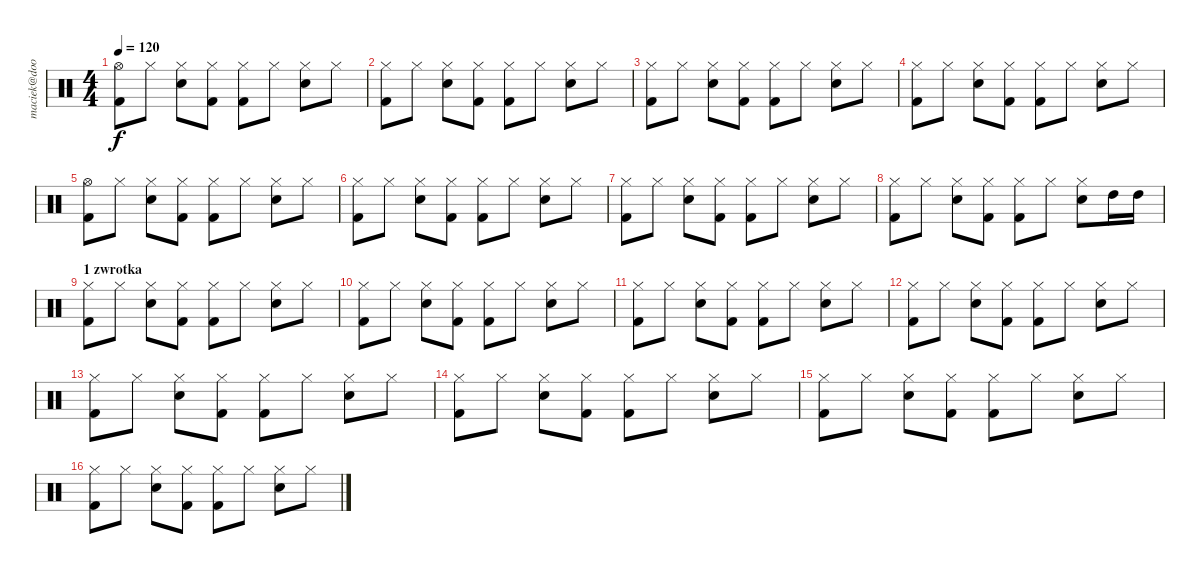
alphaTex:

\track ("maciek@doorpol.com" "maciek@doo") {instrument percussion}
\staff {score}
\articulation defaults
\ts (4 4)
\tempo 120
\clef neutral
\ks c
("Hi-Hat (open)" "Kick (hit) 2").8{dy f} "Hi-Hat (closed)".8 ("Hi-Hat (closed)" "Snare (hit) 2").8 ("Hi-Hat (closed)" "Kick (hit) 2").8 ("Hi-Hat (closed)" "Kick (hit) 2").8 "Hi-Hat (closed)".8 ("Hi-Hat (closed)" "Snare (hit) 2").8 "Hi-Hat (closed)".8 |
("Hi-Hat (closed)" "Kick (hit) 2").8 "Hi-Hat (closed)".8 ("Hi-Hat (closed)" "Snare (hit) 2").8 ("Hi-Hat (closed)" "Kick (hit) 2").8 ("Hi-Hat (closed)" "Kick (hit) 2").8 "Hi-Hat (closed)".8 ("Hi-Hat (closed)" "Snare (hit) 2").8 "Hi-Hat (closed)".8 |
("Hi-Hat (closed)" "Kick (hit) 2").8 "Hi-Hat (closed)".8 ("Hi-Hat (closed)" "Snare (hit) 2").8 ("Hi-Hat (closed)" "Kick (hit) 2").8 ("Hi-Hat (closed)" "Kick (hit) 2").8 "Hi-Hat (closed)".8 ("Hi-Hat (closed)" "Snare (hit) 2").8 "Hi-Hat (closed)".8 |
("Hi-Hat (closed)" "Kick (hit) 2").8 "Hi-Hat (closed)".8 ("Hi-Hat (closed)" "Snare (hit) 2").8 ("Hi-Hat (closed)" "Kick (hit) 2").8 ("Hi-Hat (closed)" "Kick (hit) 2").8 "Hi-Hat (closed)".8 ("Hi-Hat (closed)" "Snare (hit) 2").8 "Hi-Hat (closed)".8 |
("Hi-Hat (open)" "Kick (hit) 2").8 "Hi-Hat (closed)".8 ("Hi-Hat (closed)" "Snare (hit) 2").8 ("Hi-Hat (closed)" "Kick (hit) 2").8 ("Hi-Hat (closed)" "Kick (hit) 2").8 "Hi-Hat (closed)".8 ("Hi-Hat (closed)" "Snare (hit) 2").8 "Hi-Hat (closed)".8 |
("Hi-Hat (closed)" "Kick (hit) 2").8 "Hi-Hat (closed)".8 ("Hi-Hat (closed)" "Snare (hit) 2").8 ("Hi-Hat (closed)" "Kick (hit) 2").8 ("Hi-Hat (closed)" "Kick (hit) 2").8 "Hi-Hat (closed)".8 ("Hi-Hat (closed)" "Snare (hit) 2").8 "Hi-Hat (closed)".8 |
("Hi-Hat (closed)" "Kick (hit) 2").8 "Hi-Hat (closed)".8 ("Hi-Hat (closed)" "Snare (hit) 2").8 ("Hi-Hat (closed)" "Kick (hit) 2").8 ("Hi-Hat (closed)" "Kick (hit) 2").8 "Hi-Hat (closed)".8 ("Hi-Hat (closed)" "Snare (hit) 2").8 "Hi-Hat (closed)".8 |
("Hi-Hat (closed)" "Kick (hit) 2").8 "Hi-Hat (closed)".8 ("Hi-Hat (closed)" "Snare (hit) 2").8 ("Hi-Hat (closed)" "Kick (hit) 2").8 ("Hi-Hat (closed)" "Kick (hit) 2").8 "Hi-Hat (closed)".8 ("Hi-Hat (closed)" "Snare (hit) 2").8 "High Tom (hit)".16 "High Tom (hit)".16 |
\section ("" "1 zwrotka")
("Hi-Hat (closed)" "Kick (hit) 2").8 "Hi-Hat (closed)".8 ("Hi-Hat (closed)" "Snare (hit) 2").8 ("Hi-Hat (closed)" "Kick (hit) 2").8 ("Hi-Hat (closed)" "Kick (hit) 2").8 "Hi-Hat (closed)".8 ("Hi-Hat (closed)" "Snare (hit) 2").8 "Hi-Hat (closed)".8 |
("Hi-Hat (closed)" "Kick (hit) 2").8 "Hi-Hat (closed)".8 ("Hi-Hat (closed)" "Snare (hit) 2").8 ("Hi-Hat (closed)" "Kick (hit) 2").8 ("Hi-Hat (closed)" "Kick (hit) 2").8 "Hi-Hat (closed)".8 ("Hi-Hat (closed)" "Snare (hit) 2").8 "Hi-Hat (closed)".8 |
("Hi-Hat (closed)" "Kick (hit) 2").8 "Hi-Hat (closed)".8 ("Hi-Hat (closed)" "Snare (hit) 2").8 ("Hi-Hat (closed)" "Kick (hit) 2").8 ("Hi-Hat (closed)" "Kick (hit) 2").8 "Hi-Hat (closed)".8 ("Hi-Hat (closed)" "Snare (hit) 2").8 "Hi-Hat (closed)".8 |
("Hi-Hat (closed)" "Kick (hit) 2").8 "Hi-Hat (closed)".8 ("Hi-Hat (closed)" "Snare (hit) 2").8 ("Hi-Hat (closed)" "Kick (hit) 2").8 ("Hi-Hat (closed)" "Kick (hit) 2").8 "Hi-Hat (closed)".8 ("Hi-Hat (closed)" "Snare (hit) 2").8 "Hi-Hat (closed)".8 |
("Hi-Hat (closed)" "Kick (hit) 2").8 "Hi-Hat (closed)".8 ("Hi-Hat (closed)" "Snare (hit) 2").8 ("Hi-Hat (closed)" "Kick (hit) 2").8 ("Hi-Hat (closed)" "Kick (hit) 2").8 "Hi-Hat (closed)".8 ("Hi-Hat (closed)" "Snare (hit) 2").8 "Hi-Hat (closed)".8 |
("Hi-Hat (closed)" "Kick (hit) 2").8 "Hi-Hat (closed)".8 ("Hi-Hat (closed)" "Snare (hit) 2").8 ("Hi-Hat (closed)" "Kick (hit) 2").8 ("Hi-Hat (closed)" "Kick (hit) 2").8 "Hi-Hat (closed)".8 ("Hi-Hat (closed)" "Snare (hit) 2").8 "Hi-Hat (closed)".8 |
("Hi-Hat (closed)" "Kick (hit) 2").8 "Hi-Hat (closed)".8 ("Hi-Hat (closed)" "Snare (hit) 2").8 ("Hi-Hat (closed)" "Kick (hit) 2").8 ("Hi-Hat (closed)" "Kick (hit) 2").8 "Hi-Hat (closed)".8 ("Hi-Hat (closed)" "Snare (hit) 2").8 "Hi-Hat (closed)".8 |
("Hi-Hat (closed)" "Kick (hit) 2").8 "Hi-Hat (closed)".8 ("Hi-Hat (closed)" "Snare (hit) 2").8 ("Hi-Hat (closed)" "Kick (hit) 2").8 ("Hi-Hat (closed)" "Kick (hit) 2").8 "Hi-Hat (closed)".8 ("Hi-Hat (closed)" "Snare (hit) 2").8 "Hi-Hat (closed)".8
